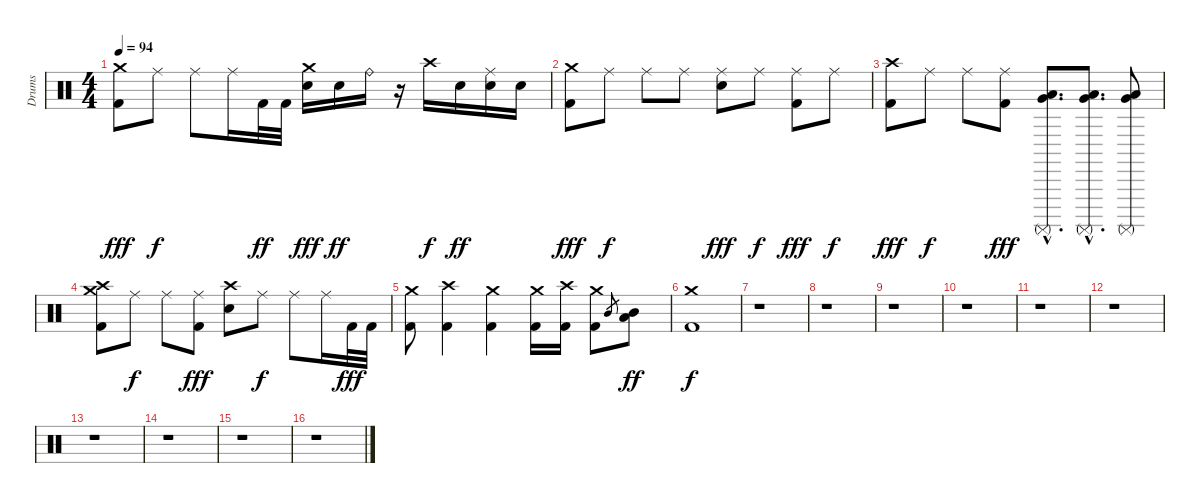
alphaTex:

\track ("Drums" "Drums") {instrument percussion}
\staff {score}
\articulation defaults
\ts (4 4)
\tempo 94
\clef neutral
\ks c
("Crash medium (hit)" "Kick (hit) 2").8{dy fff} "Ride (middle)".8{dy f} "Ride (middle)".8 "Ride (middle)".16 "Kick (hit) 2".32{dy ff} "Kick (hit) 2".32 ("Crash medium (hit)" "Snare (hit) 2").16{dy fff} "Snare (hit) 2".16{dy ff} "Ride (bell)".16 r.16 "Crash high (hit)".16{dy f} "Snare (hit) 2".16{dy ff} ("Ride (middle)" "Snare (hit) 2").16 "Snare (hit) 2".16 |
("Crash medium (hit)" "Kick (hit) 2").8{dy fff} "Ride (middle)".8{dy f} "Ride (middle)".8 "Ride (middle)".8 ("Ride (middle)" "Snare (hit) 2").8{dy fff} "Ride (middle)".8{dy f} ("Ride (middle)" "Kick (hit) 2").8{dy fff} "Ride (middle)".8{dy f} |
("Crash high (hit)" "Kick (hit) 2").8{dy fff} "Ride (middle)".8{dy f} "Ride (middle)".8 ("Ride (middle)" "Kick (hit) 2").8{dy fff} ("Surdo (mute)"{hac} "Low Tom (hit)"{hac} "Very Low Tom (hit)"{hac}).8{d} ("Surdo (mute)"{hac} "Low Tom (hit)"{hac} "Very Low Tom (hit)"{hac}).8{d} ("Surdo (mute)" "Low Tom (hit)" "Very Low Tom (hit)").8 |
("Crash medium (hit)" "Crash high (hit)" "Kick (hit) 2").8 "Ride (middle)".8{dy f} "Ride (middle)".8 ("Ride (middle)" "Kick (hit) 2").8{dy fff} ("Crash high (hit)" "Snare (hit) 2").8 "Ride (middle)".8{dy f} "Ride (middle)".8 "Ride (middle)".16 "Kick (hit) 2".32{dy fff} "Kick (hit) 2".32 |
("Crash medium (hit)" "Kick (hit) 2").8 ("Crash high (hit)" "Kick (hit) 2").4 ("Crash medium (hit)" "Kick (hit) 2").4 ("Crash medium (hit)" "Kick (hit) 2").16 ("Crash high (hit)" "Kick (hit) 2").16 ("Crash medium (hit)" "Kick (hit) 2").8 "Mid Tom (hit)".8{gr} ("Low Tom (hit)" "Mid Tom (hit)").8{dy ff} |
("Crash medium (hit)" "Kick (hit) 2").1{dy f} |
r.1 |
r.1 |
r.1 |
r.1 |
r.1 |
r.1 |
r.1 |
r.1 |
r.1 |
r.1
